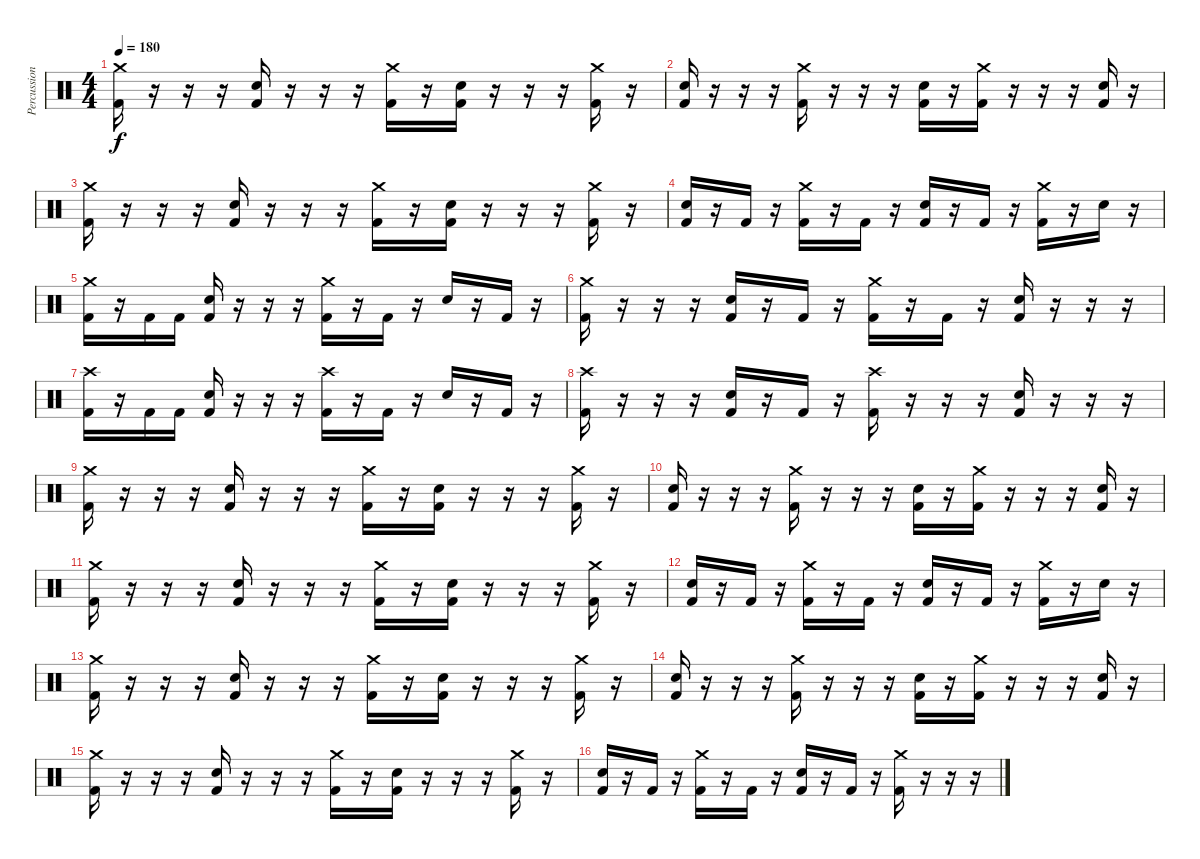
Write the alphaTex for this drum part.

\track ("Percussion" "Percussion") {instrument percussion}
\staff {score}
\articulation defaults
\ts (4 4)
\tempo 180
\clef neutral
\ks c
("Crash medium (hit)" "Kick (hit) 2").16{dy f} r.16 r.16 r.16 ("Electric Snare (hit)" "Kick (hit) 2").16 r.16 r.16 r.16 ("Crash medium (hit)" "Kick (hit) 2").16 r.16 ("Electric Snare (hit)" "Kick (hit) 2").16 r.16 r.16 r.16 ("Crash medium (hit)" "Kick (hit) 2").16 r.16 |
("Electric Snare (hit)" "Kick (hit) 2").16 r.16 r.16 r.16 ("Crash medium (hit)" "Kick (hit) 2").16 r.16 r.16 r.16 ("Electric Snare (hit)" "Kick (hit) 2").16 r.16 ("Crash medium (hit)" "Kick (hit) 2").16 r.16 r.16 r.16 ("Electric Snare (hit)" "Kick (hit) 2").16 r.16 |
("Crash medium (hit)" "Kick (hit) 2").16 r.16 r.16 r.16 ("Electric Snare (hit)" "Kick (hit) 2").16 r.16 r.16 r.16 ("Crash medium (hit)" "Kick (hit) 2").16 r.16 ("Electric Snare (hit)" "Kick (hit) 2").16 r.16 r.16 r.16 ("Crash medium (hit)" "Kick (hit) 2").16 r.16 |
("Electric Snare (hit)" "Kick (hit) 2").16 r.16 "Kick (hit) 2".16 r.16 ("Crash medium (hit)" "Kick (hit) 2").16 r.16 "Kick (hit) 2".16 r.16 ("Electric Snare (hit)" "Kick (hit) 2").16 r.16 "Kick (hit) 2".16 r.16 ("Crash medium (hit)" "Kick (hit) 2").16 r.16 "Electric Snare (hit)".16 r.16 |
("Crash medium (hit)" "Kick (hit) 2").16 r.16 "Kick (hit) 2".16 "Kick (hit) 2".16 ("Electric Snare (hit)" "Kick (hit) 2").16 r.16 r.16 r.16 ("Crash medium (hit)" "Kick (hit) 2").16 r.16 "Kick (hit) 2".16 r.16 "Electric Snare (hit)".16 r.16 "Kick (hit) 2".16 r.16 |
("Crash medium (hit)" "Kick (hit) 2").16 r.16 r.16 r.16 ("Electric Snare (hit)" "Kick (hit) 2").16 r.16 "Kick (hit) 2".16 r.16 ("Crash medium (hit)" "Kick (hit) 2").16 r.16 "Kick (hit) 2".16 r.16 ("Electric Snare (hit)" "Kick (hit) 2").16 r.16 r.16 r.16 |
("Crash high (hit)" "Kick (hit) 2").16 r.16 "Kick (hit) 2".16 "Kick (hit) 2".16 ("Electric Snare (hit)" "Kick (hit) 2").16 r.16 r.16 r.16 ("Crash high (hit)" "Kick (hit) 2").16 r.16 "Kick (hit) 2".16 r.16 "Electric Snare (hit)".16 r.16 "Kick (hit) 2".16 r.16 |
("Crash high (hit)" "Kick (hit) 2").16 r.16 r.16 r.16 ("Electric Snare (hit)" "Kick (hit) 2").16 r.16 "Kick (hit) 2".16 r.16 ("Crash high (hit)" "Kick (hit) 2").16 r.16 r.16 r.16 ("Electric Snare (hit)" "Kick (hit) 2").16 r.16 r.16 r.16 |
("Crash medium (hit)" "Kick (hit) 2").16 r.16 r.16 r.16 ("Electric Snare (hit)" "Kick (hit) 2").16 r.16 r.16 r.16 ("Crash medium (hit)" "Kick (hit) 2").16 r.16 ("Electric Snare (hit)" "Kick (hit) 2").16 r.16 r.16 r.16 ("Crash medium (hit)" "Kick (hit) 2").16 r.16 |
("Electric Snare (hit)" "Kick (hit) 2").16 r.16 r.16 r.16 ("Crash medium (hit)" "Kick (hit) 2").16 r.16 r.16 r.16 ("Electric Snare (hit)" "Kick (hit) 2").16 r.16 ("Crash medium (hit)" "Kick (hit) 2").16 r.16 r.16 r.16 ("Electric Snare (hit)" "Kick (hit) 2").16 r.16 |
("Crash medium (hit)" "Kick (hit) 2").16 r.16 r.16 r.16 ("Electric Snare (hit)" "Kick (hit) 2").16 r.16 r.16 r.16 ("Crash medium (hit)" "Kick (hit) 2").16 r.16 ("Electric Snare (hit)" "Kick (hit) 2").16 r.16 r.16 r.16 ("Crash medium (hit)" "Kick (hit) 2").16 r.16 |
("Electric Snare (hit)" "Kick (hit) 2").16 r.16 "Kick (hit) 2".16 r.16 ("Crash medium (hit)" "Kick (hit) 2").16 r.16 "Kick (hit) 2".16 r.16 ("Electric Snare (hit)" "Kick (hit) 2").16 r.16 "Kick (hit) 2".16 r.16 ("Crash medium (hit)" "Kick (hit) 2").16 r.16 "Electric Snare (hit)".16 r.16 |
("Crash medium (hit)" "Kick (hit) 2").16 r.16 r.16 r.16 ("Electric Snare (hit)" "Kick (hit) 2").16 r.16 r.16 r.16 ("Crash medium (hit)" "Kick (hit) 2").16 r.16 ("Electric Snare (hit)" "Kick (hit) 2").16 r.16 r.16 r.16 ("Crash medium (hit)" "Kick (hit) 2").16 r.16 |
("Electric Snare (hit)" "Kick (hit) 2").16 r.16 r.16 r.16 ("Crash medium (hit)" "Kick (hit) 2").16 r.16 r.16 r.16 ("Electric Snare (hit)" "Kick (hit) 2").16 r.16 ("Crash medium (hit)" "Kick (hit) 2").16 r.16 r.16 r.16 ("Electric Snare (hit)" "Kick (hit) 2").16 r.16 |
("Crash medium (hit)" "Kick (hit) 2").16 r.16 r.16 r.16 ("Electric Snare (hit)" "Kick (hit) 2").16 r.16 r.16 r.16 ("Crash medium (hit)" "Kick (hit) 2").16 r.16 ("Electric Snare (hit)" "Kick (hit) 2").16 r.16 r.16 r.16 ("Crash medium (hit)" "Kick (hit) 2").16 r.16 |
("Electric Snare (hit)" "Kick (hit) 2").16 r.16 "Kick (hit) 2".16 r.16 ("Crash medium (hit)" "Kick (hit) 2").16 r.16 "Kick (hit) 2".16 r.16 ("Electric Snare (hit)" "Kick (hit) 2").16 r.16 "Kick (hit) 2".16 r.16 ("Crash medium (hit)" "Kick (hit) 2").16 r.16 r.16 r.16
